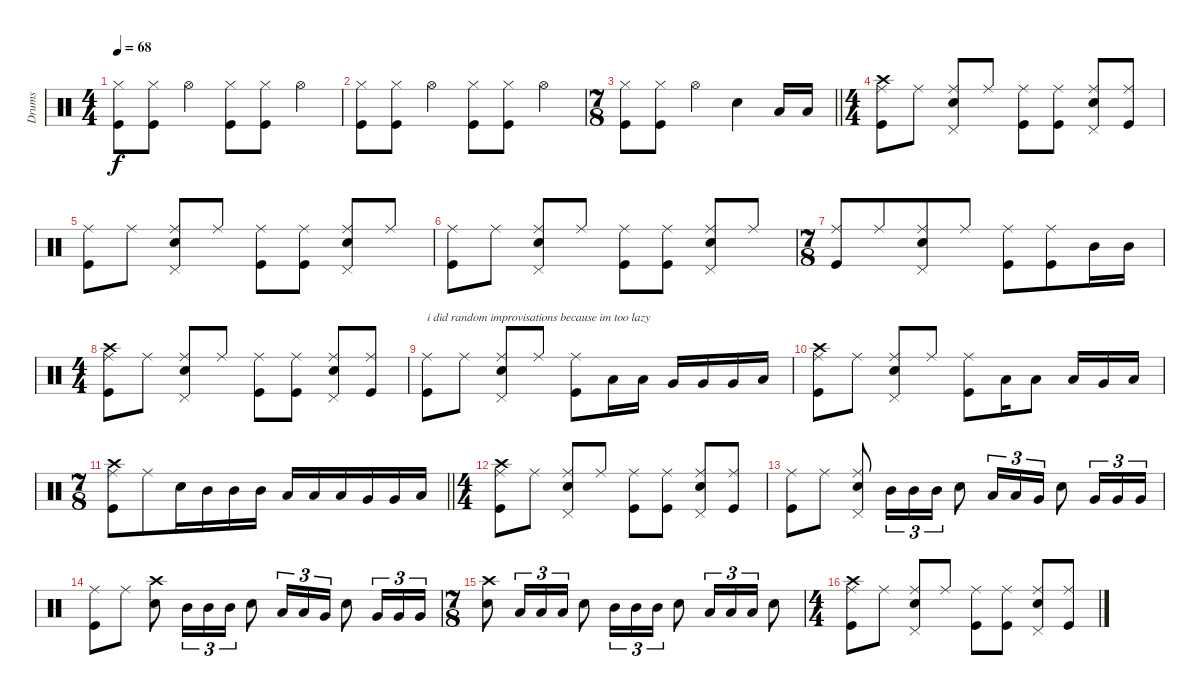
\track ("Drums" "Drums") {instrument percussion}
\staff {score}
\articulation defaults
\ts (4 4)
\tempo 68
\clef neutral
\ks c
("Hi-Hat (closed)" "Kick (hit)").8{dy f} ("Hi-Hat (closed)" "Kick (hit)").8 "Hi-Hat (open)".4 ("Hi-Hat (closed)" "Kick (hit)").8 ("Hi-Hat (closed)" "Kick (hit)").8 "Hi-Hat (open)".4 |
("Kick (hit)" "Hi-Hat (closed)").8 ("Kick (hit)" "Hi-Hat (closed)").8 "Hi-Hat (open)".4 ("Kick (hit)" "Hi-Hat (closed)").8 ("Kick (hit)" "Hi-Hat (closed)").8 "Hi-Hat (open)".4 |
\ts (7 8)
\barLineRight lightlight
("Kick (hit)" "Hi-Hat (closed)").8 ("Kick (hit)" "Hi-Hat (closed)").8 "Hi-Hat (open)".4 "Snare (hit) 2".4 "Low Tom (hit)".16 "Low Tom (hit)".16 |
\ts (4 4)
("Ride (middle)" "Crash high (hit)" "Kick (hit)").8 "Ride (middle)".8 ("Ride (middle)" "Snare (hit) 2" "Pedal Hi-Hat (hit)").8 "Ride (middle)".8 ("Ride (middle)" "Kick (hit)").8 ("Ride (middle)" "Kick (hit)").8 ("Ride (middle)" "Snare (hit) 2" "Pedal Hi-Hat (hit)").8 ("Ride (middle)" "Kick (hit)").8 |
("Ride (middle)" "Kick (hit)").8 "Ride (middle)".8 ("Ride (middle)" "Snare (hit) 2" "Pedal Hi-Hat (hit)").8 "Ride (middle)".8 ("Ride (middle)" "Kick (hit)").8 ("Ride (middle)" "Kick (hit)").8 ("Ride (middle)" "Snare (hit) 2" "Pedal Hi-Hat (hit)").8 "Ride (middle)".8 |
("Ride (middle)" "Kick (hit)").8 "Ride (middle)".8 ("Ride (middle)" "Snare (hit) 2" "Pedal Hi-Hat (hit)").8 "Ride (middle)".8 ("Ride (middle)" "Kick (hit)").8 ("Ride (middle)" "Kick (hit)").8 ("Ride (middle)" "Snare (hit) 2" "Pedal Hi-Hat (hit)").8 "Ride (middle)".8 |
\ts (7 8)
("Ride (middle)" "Kick (hit)").8 "Ride (middle)".8 ("Ride (middle)" "Snare (hit) 2" "Pedal Hi-Hat (hit)").8 "Ride (middle)".8 ("Ride (middle)" "Kick (hit)").8 ("Ride (middle)" "Kick (hit)").8 "Mid Tom (hit)".16 "Mid Tom (hit)".16 |
\ts (4 4)
("Ride (middle)" "Crash high (hit)" "Kick (hit)").8 "Ride (middle)".8 ("Ride (middle)" "Snare (hit) 2" "Pedal Hi-Hat (hit)").8 "Ride (middle)".8 ("Ride (middle)" "Kick (hit)").8 ("Ride (middle)" "Kick (hit)").8 ("Ride (middle)" "Snare (hit) 2" "Pedal Hi-Hat (hit)").8 ("Ride (middle)" "Kick (hit)").8 |
("Ride (middle)" "Kick (hit)").8{txt "i did random improvisations because im too lazy"} "Ride (middle)".8 ("Ride (middle)" "Snare (hit) 2" "Pedal Hi-Hat (hit)").8 "Ride (middle)".8 ("Ride (middle)" "Kick (hit)").8 "Low Tom (hit)".16 "Low Tom (hit)".16 "Very Low Tom (hit)".16 "Very Low Tom (hit)".16 "Very Low Tom (hit)".16 "Low Floor Tom (hit)".16 |
("Ride (middle)" "Crash high (hit)" "Kick (hit)").8 "Ride (middle)".8 ("Ride (middle)" "Snare (hit) 2" "Pedal Hi-Hat (hit)").8 "Ride (middle)".8 ("Ride (middle)" "Kick (hit)").8 "Low Tom (hit)".16 "Low Tom (hit)".8 "Low Tom (hit)".16 "Very Low Tom (hit)".16 "Low Floor Tom (hit)".16 |
\ts (7 8)
\barLineRight lightlight
("Crash high (hit)" "Ride (middle)" "Kick (hit)").8 "Ride (middle)".8 "Snare (hit) 2".16 "Mid Tom (hit)".16 "Mid Tom (hit)".16 "Mid Tom (hit)".16 "Low Tom (hit)".16 "Low Tom (hit)".16 "Low Tom (hit)".16 "Very Low Tom (hit)".16 "Very Low Tom (hit)".16 "Low Floor Tom (hit)".16 |
\ts (4 4)
("Ride (middle)" "Crash high (hit)" "Kick (hit)").8 "Ride (middle)".8 ("Ride (middle)" "Snare (hit) 2" "Pedal Hi-Hat (hit)").8 "Ride (middle)".8 ("Ride (middle)" "Kick (hit)").8 ("Ride (middle)" "Kick (hit)").8 ("Ride (middle)" "Snare (hit) 2" "Pedal Hi-Hat (hit)").8 ("Ride (middle)" "Kick (hit)").8 |
("Ride (middle)" "Kick (hit)").8 "Ride (middle)".8 ("Ride (middle)" "Snare (hit) 2" "Pedal Hi-Hat (hit)").8 "Mid Tom (hit)".16{tu (3 2)} "Mid Tom (hit)".16{tu (3 2)} "Mid Tom (hit)".16{tu (3 2)} "Snare (hit) 2".8 "Low Tom (hit)".16{tu (3 2)} "Low Tom (hit)".16{tu (3 2)} "Very Low Tom (hit)".16{tu (3 2)} "Snare (hit) 2".8 "Very Low Tom (hit)".16{tu (3 2)} "Very Low Tom (hit)".16{tu (3 2)} "Very Low Tom (hit)".16{tu (3 2)} |
("Ride (middle)" "Kick (hit)").8 "Ride (middle)".8 ("Crash high (hit)" "Snare (hit) 2").8 "Mid Tom (hit)".16{tu (3 2)} "Mid Tom (hit)".16{tu (3 2)} "Mid Tom (hit)".16{tu (3 2)} "Snare (hit) 2".8 "Low Tom (hit)".16{tu (3 2)} "Low Tom (hit)".16{tu (3 2)} "Very Low Tom (hit)".16{tu (3 2)} "Snare (hit) 2".8 "Very Low Tom (hit)".16{tu (3 2)} "Very Low Tom (hit)".16{tu (3 2)} "Very Low Tom (hit)".16{tu (3 2)} |
\ts (7 8)
("Crash high (hit)" "Snare (hit) 2").8 "Low Floor Tom (hit)".16{tu (3 2)} "Low Floor Tom (hit)".16{tu (3 2)} "Low Floor Tom (hit)".16{tu (3 2)} "Snare (hit) 2".8 "Mid Tom (hit)".16{tu (3 2)} "Mid Tom (hit)".16{tu (3 2)} "Mid Tom (hit)".16{tu (3 2)} "Snare (hit) 2".8 "Low Tom (hit)".16{tu (3 2)} "Low Tom (hit)".16{tu (3 2)} "Low Tom (hit)".16{tu (3 2)} "Snare (hit) 2".8 |
\ts (4 4)
("Ride (middle)" "Crash high (hit)" "Kick (hit)").8{volume 0} "Ride (middle)".8 ("Ride (middle)" "Snare (hit) 2" "Pedal Hi-Hat (hit)").8 "Ride (middle)".8 ("Ride (middle)" "Kick (hit)").8 ("Ride (middle)" "Kick (hit)").8 ("Ride (middle)" "Snare (hit) 2" "Pedal Hi-Hat (hit)").8 ("Ride (middle)" "Kick (hit)").8
